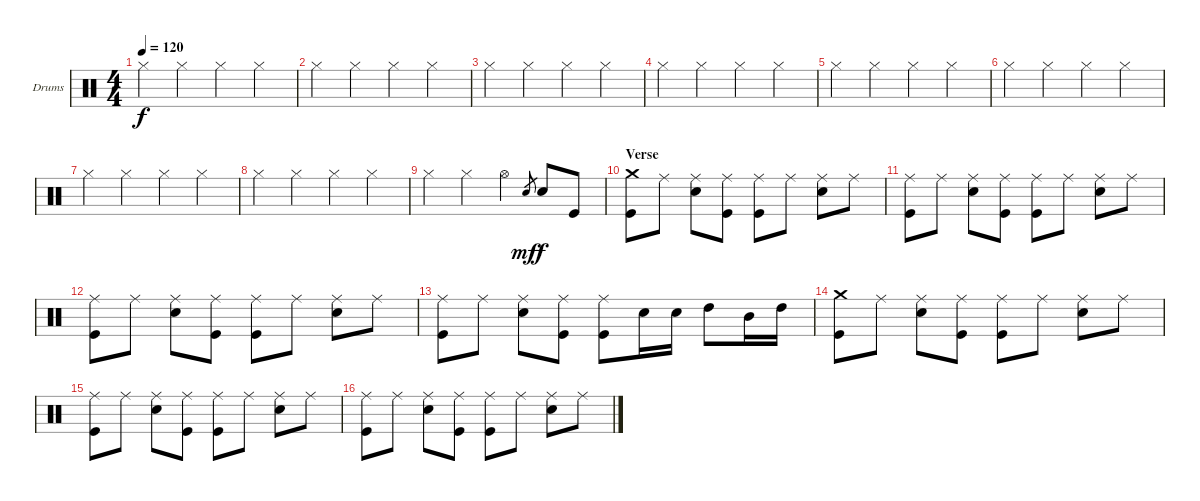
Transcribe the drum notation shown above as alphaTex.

\bracketExtendMode groupsimilarinstruments
\firstSystemTrackNameOrientation horizontal
\otherSystemsTrackNameOrientation horizontal
\track ("Drumkit" "Drums") {instrument percussion}
\staff {score}
\articulation defaults
\ts (4 4)
\tempo 120
\clef neutral
\ks c "Hi-Hat (closed)".4{dy f} "Hi-Hat (closed)".4 "Hi-Hat (closed)".4 "Hi-Hat (closed)".4
|
"Hi-Hat (closed)".4 "Hi-Hat (closed)".4 "Hi-Hat (closed)".4 "Hi-Hat (closed)".4 |
"Hi-Hat (closed)".4 "Hi-Hat (closed)".4 "Hi-Hat (closed)".4 "Hi-Hat (closed)".4 |
"Hi-Hat (closed)".4 "Hi-Hat (closed)".4 "Hi-Hat (closed)".4 "Hi-Hat (closed)".4 |
"Hi-Hat (closed)".4 "Hi-Hat (closed)".4 "Hi-Hat (closed)".4 "Hi-Hat (closed)".4 |
"Hi-Hat (closed)".4 "Hi-Hat (closed)".4 "Hi-Hat (closed)".4 "Hi-Hat (closed)".4 |
"Hi-Hat (closed)".4 "Hi-Hat (closed)".4 "Hi-Hat (closed)".4 "Hi-Hat (closed)".4 |
"Hi-Hat (closed)".4 "Hi-Hat (closed)".4 "Hi-Hat (closed)".4 "Hi-Hat (closed)".4 |
"Hi-Hat (closed)".4 "Hi-Hat (closed)".4 "Hi-Hat (open)".4 "Snare (hit) 2".8{gr dy mf} "Snare (hit) 2".8{dy f} "Kick (hit)".8 |
\section ("" "Verse")
("Crash medium (hit)" "Kick (hit)").8 "Ride (middle)".8 ("Ride (middle)" "Snare (hit) 2").8 ("Ride (middle)" "Kick (hit)").8 ("Ride (middle)" "Kick (hit)").8 "Ride (middle)".8 ("Ride (middle)" "Snare (hit) 2").8 "Ride (middle)".8 |
("Ride (middle)" "Kick (hit)").8 "Ride (middle)".8 ("Ride (middle)" "Snare (hit) 2").8 ("Ride (middle)" "Kick (hit)").8 ("Ride (middle)" "Kick (hit)").8 "Ride (middle)".8 ("Ride (middle)" "Snare (hit) 2").8 "Ride (middle)".8 |
("Ride (middle)" "Kick (hit)").8 "Ride (middle)".8 ("Ride (middle)" "Snare (hit) 2").8 ("Ride (middle)" "Kick (hit)").8 ("Ride (middle)" "Kick (hit)").8 "Ride (middle)".8 ("Ride (middle)" "Snare (hit) 2").8 "Ride (middle)".8 |
("Ride (middle)" "Kick (hit)").8 "Ride (middle)".8 ("Ride (middle)" "Snare (hit) 2").8 ("Ride (middle)" "Kick (hit)").8 ("Ride (middle)" "Kick (hit)").8 "Snare (hit) 2".16 "Snare (hit) 2".16 "High Tom (hit)".8 "Mid Tom (hit)".16 "High Tom (hit)".16 |
("Crash medium (hit)" "Kick (hit)").8 "Ride (middle)".8 ("Ride (middle)" "Snare (hit) 2").8 ("Ride (middle)" "Kick (hit)").8 ("Ride (middle)" "Kick (hit)").8 "Ride (middle)".8 ("Ride (middle)" "Snare (hit) 2").8 "Ride (middle)".8 |
("Ride (middle)" "Kick (hit)").8 "Ride (middle)".8 ("Ride (middle)" "Snare (hit) 2").8 ("Ride (middle)" "Kick (hit)").8 ("Ride (middle)" "Kick (hit)").8 "Ride (middle)".8 ("Ride (middle)" "Snare (hit) 2").8 "Ride (middle)".8 |
("Ride (middle)" "Kick (hit)").8 "Ride (middle)".8 ("Ride (middle)" "Snare (hit) 2").8 ("Ride (middle)" "Kick (hit)").8 ("Ride (middle)" "Kick (hit)").8 "Ride (middle)".8 ("Ride (middle)" "Snare (hit) 2").8 "Ride (middle)".8
